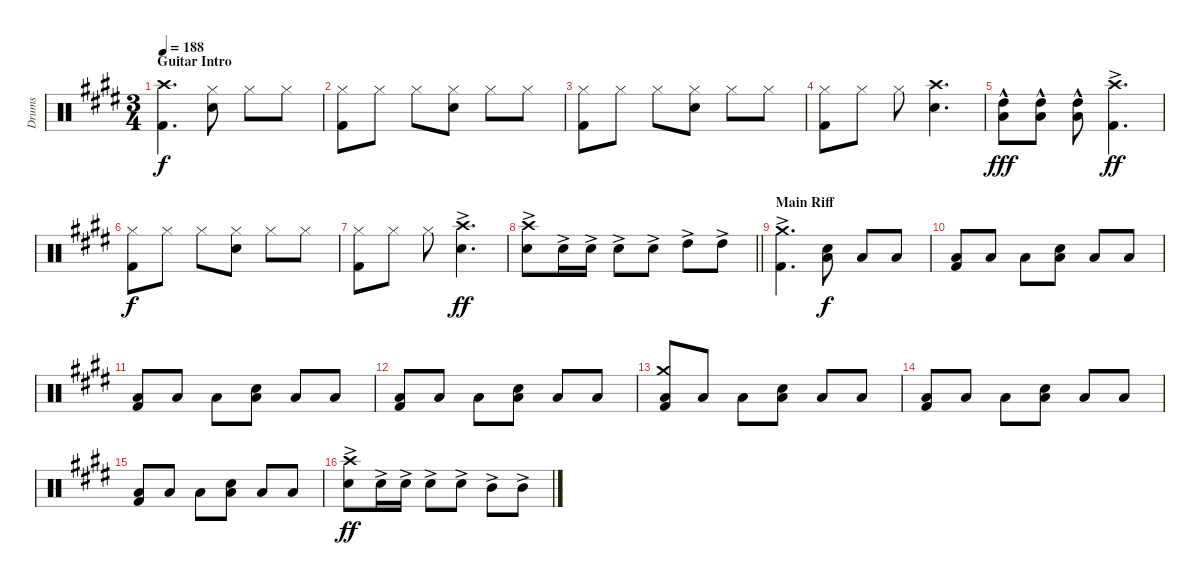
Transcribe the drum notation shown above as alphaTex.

\track ("Drums" "Drums") {instrument percussion}
\staff {score}
\articulation defaults
\ts (3 4)
\section ("" "Guitar Intro")
\tempo 188
\clef neutral
\ks e
("Crash high (hit)" "Kick (hit) 2").4{d dy f} ("Hi-Hat (closed)" "Electric Snare (hit)").8 "Hi-Hat (closed)".8 "Hi-Hat (closed)".8 |
("Hi-Hat (closed)" "Kick (hit) 2").8 "Hi-Hat (closed)".8 "Hi-Hat (closed)".8 ("Hi-Hat (closed)" "Electric Snare (hit)").8 "Hi-Hat (closed)".8 "Hi-Hat (closed)".8 |
("Hi-Hat (closed)" "Kick (hit) 2").8 "Hi-Hat (closed)".8 "Hi-Hat (closed)".8 ("Hi-Hat (closed)" "Electric Snare (hit)").8 "Hi-Hat (closed)".8 "Hi-Hat (closed)".8 |
("Hi-Hat (closed)" "Kick (hit) 2").8 "Hi-Hat (closed)".8 "Hi-Hat (closed)".8 ("Crash high (hit)" "Electric Snare (hit)").4{d} |
("High Tom (hit)"{hac} "Low Tom (hit)"{hac}).8{dy fff} ("High Tom (hit)"{hac} "Low Tom (hit)"{hac}).8 ("High Tom (hit)"{hac} "Low Tom (hit)"{hac}).8 ("Crash high (hit)"{ac} "Kick (hit) 2"{ac}).4{d dy ff} |
("Hi-Hat (closed)" "Kick (hit) 2").8{dy f} "Hi-Hat (closed)".8 "Hi-Hat (closed)".8 ("Hi-Hat (closed)" "Electric Snare (hit)").8 "Hi-Hat (closed)".8 "Hi-Hat (closed)".8 |
("Hi-Hat (closed)" "Kick (hit) 2").8 "Hi-Hat (closed)".8 "Hi-Hat (closed)".8 ("Crash high (hit)" "Electric Snare (hit)"{ac}).4{d dy ff} |
\barLineRight lightlight
("Crash high (hit)" "Electric Snare (hit)"{ac}).8 "Electric Snare (hit)"{ac}.16 "Electric Snare (hit)"{ac}.16 "Electric Snare (hit)"{ac}.8 "Electric Snare (hit)"{ac}.8 "High Tom (hit)"{ac}.8 "High Tom (hit)"{ac}.8 |
\section ("" "Main Riff")
("Crash medium (hit)" "Kick (hit) 2"{ac}).4{d} ("Electric Snare (hit)" "Low Floor Tom (hit)").8{dy f} "Low Floor Tom (hit)".8 "Low Floor Tom (hit)".8 |
("Low Floor Tom (hit)" "Kick (hit) 2").8 "Low Floor Tom (hit)".8 "Low Floor Tom (hit)".8 ("Electric Snare (hit)" "Low Floor Tom (hit)").8 "Low Floor Tom (hit)".8 "Low Floor Tom (hit)".8 |
("Low Floor Tom (hit)" "Kick (hit) 2").8 "Low Floor Tom (hit)".8 "Low Floor Tom (hit)".8 ("Electric Snare (hit)" "Low Floor Tom (hit)").8 "Low Floor Tom (hit)".8 "Low Floor Tom (hit)".8 |
("Low Floor Tom (hit)" "Kick (hit) 2").8 "Low Floor Tom (hit)".8 "Low Floor Tom (hit)".8 ("Electric Snare (hit)" "Low Floor Tom (hit)").8 "Low Floor Tom (hit)".8 "Low Floor Tom (hit)".8 |
("Crash medium (hit)" "Low Floor Tom (hit)" "Kick (hit) 2").8 "Low Floor Tom (hit)".8 "Low Floor Tom (hit)".8 ("Electric Snare (hit)" "Low Floor Tom (hit)").8 "Low Floor Tom (hit)".8 "Low Floor Tom (hit)".8 |
("Low Floor Tom (hit)" "Kick (hit) 2").8 "Low Floor Tom (hit)".8 "Low Floor Tom (hit)".8 ("Electric Snare (hit)" "Low Floor Tom (hit)").8 "Low Floor Tom (hit)".8 "Low Floor Tom (hit)".8 |
("Low Floor Tom (hit)" "Kick (hit) 2").8 "Low Floor Tom (hit)".8 "Low Floor Tom (hit)".8 ("Electric Snare (hit)" "Low Floor Tom (hit)").8 "Low Floor Tom (hit)".8 "Low Floor Tom (hit)".8 |
("Crash high (hit)" "Electric Snare (hit)"{ac}).8{dy ff} "Electric Snare (hit)"{ac}.16 "Electric Snare (hit)"{ac}.16 "Electric Snare (hit)"{ac}.8 "Electric Snare (hit)"{ac}.8 "Mid Tom (hit)"{ac}.8 "Mid Tom (hit)"{ac}.8
